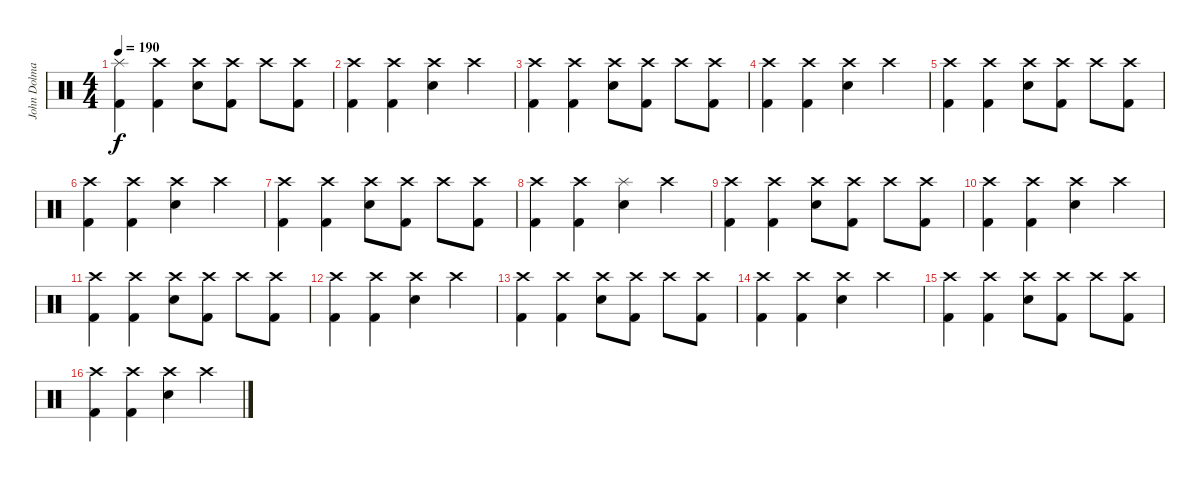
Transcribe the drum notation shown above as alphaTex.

\track ("John Dolmayan" "John Dolma") {instrument percussion}
\staff {score}
\articulation defaults
\ts (4 4)
\tempo 190
\clef neutral
\ks c
("Splash (hit)" "Kick (hit) 2").4{dy f} ("Crash high (hit)" "Kick (hit) 2").4 ("Crash high (hit)" "Electric Snare (hit)").8 ("Crash high (hit)" "Kick (hit) 2").8 "Crash high (hit)".8 ("Crash high (hit)" "Kick (hit) 2").8 |
("Crash high (hit)" "Kick (hit) 2").4 ("Crash high (hit)" "Kick (hit) 2").4 ("Crash high (hit)" "Electric Snare (hit)").4 "Crash high (hit)".4 |
("Crash high (hit)" "Kick (hit) 2").4 ("Crash high (hit)" "Kick (hit) 2").4 ("Crash high (hit)" "Electric Snare (hit)").8 ("Crash high (hit)" "Kick (hit) 2").8 "Crash high (hit)".8 ("Crash high (hit)" "Kick (hit) 2").8 |
("Crash high (hit)" "Kick (hit) 2").4 ("Crash high (hit)" "Kick (hit) 2").4 ("Crash high (hit)" "Electric Snare (hit)").4 "Crash high (hit)".4 |
("Crash high (hit)" "Kick (hit) 2").4 ("Crash high (hit)" "Kick (hit) 2").4 ("Crash high (hit)" "Electric Snare (hit)").8 ("Crash high (hit)" "Kick (hit) 2").8 "Crash high (hit)".8 ("Crash high (hit)" "Kick (hit) 2").8 |
("Crash high (hit)" "Kick (hit) 2").4 ("Crash high (hit)" "Kick (hit) 2").4 ("Crash high (hit)" "Electric Snare (hit)").4 "Crash high (hit)".4 |
("Crash high (hit)" "Kick (hit) 2").4 ("Crash high (hit)" "Kick (hit) 2").4 ("Crash high (hit)" "Electric Snare (hit)").8 ("Crash high (hit)" "Kick (hit) 2").8 "Crash high (hit)".8 ("Crash high (hit)" "Kick (hit) 2").8 |
("Crash high (hit)" "Kick (hit) 2").4 ("Crash high (hit)" "Kick (hit) 2").4 ("Splash (hit)" "Electric Snare (hit)").4 "Crash high (hit)".4 |
("Crash high (hit)" "Kick (hit) 2").4 ("Crash high (hit)" "Kick (hit) 2").4 ("Crash high (hit)" "Electric Snare (hit)").8 ("Crash high (hit)" "Kick (hit) 2").8 "Crash high (hit)".8 ("Crash high (hit)" "Kick (hit) 2").8 |
("Crash high (hit)" "Kick (hit) 2").4 ("Crash high (hit)" "Kick (hit) 2").4 ("Crash high (hit)" "Electric Snare (hit)").4 "Crash high (hit)".4 |
("Crash high (hit)" "Kick (hit) 2").4 ("Crash high (hit)" "Kick (hit) 2").4 ("Crash high (hit)" "Electric Snare (hit)").8 ("Crash high (hit)" "Kick (hit) 2").8 "Crash high (hit)".8 ("Crash high (hit)" "Kick (hit) 2").8 |
("Crash high (hit)" "Kick (hit) 2").4 ("Crash high (hit)" "Kick (hit) 2").4 ("Crash high (hit)" "Electric Snare (hit)").4 "Crash high (hit)".4 |
("Crash high (hit)" "Kick (hit) 2").4 ("Crash high (hit)" "Kick (hit) 2").4 ("Crash high (hit)" "Electric Snare (hit)").8 ("Crash high (hit)" "Kick (hit) 2").8 "Crash high (hit)".8 ("Crash high (hit)" "Kick (hit) 2").8 |
("Crash high (hit)" "Kick (hit) 2").4 ("Crash high (hit)" "Kick (hit) 2").4 ("Crash high (hit)" "Electric Snare (hit)").4 "Crash high (hit)".4 |
("Crash high (hit)" "Kick (hit) 2").4 ("Crash high (hit)" "Kick (hit) 2").4 ("Crash high (hit)" "Electric Snare (hit)").8 ("Crash high (hit)" "Kick (hit) 2").8 "Crash high (hit)".8 ("Crash high (hit)" "Kick (hit) 2").8 |
("Crash high (hit)" "Kick (hit) 2").4 ("Crash high (hit)" "Kick (hit) 2").4 ("Crash high (hit)" "Electric Snare (hit)").4 "Crash high (hit)".4
